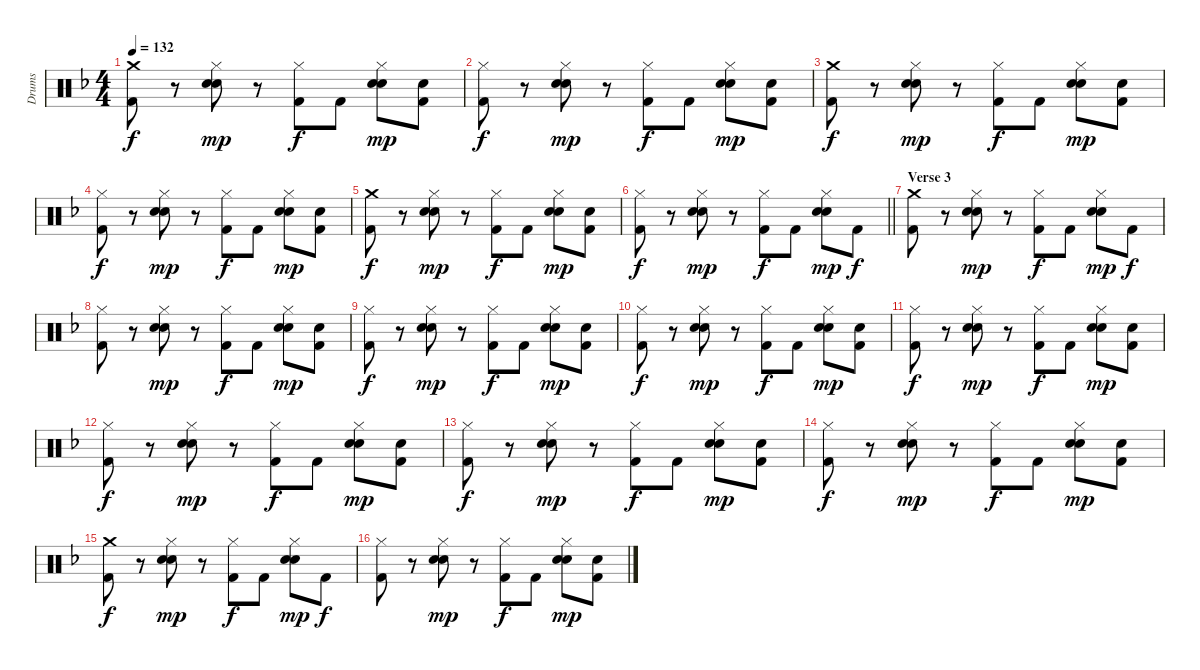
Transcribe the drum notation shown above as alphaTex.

\track ("Drums" "Drums") {instrument percussion}
\staff {score}
\articulation defaults
\ts (4 4)
\tempo 132
\clef neutral
\ks f
("Crash medium (hit)" "Kick (hit) 2").8{dy f} r.8 ("Hi-Hat (closed)" "Hand Clap (hit)" "Snare (hit) 2").8{dy mp} r.8 ("Hi-Hat (closed)" "Kick (hit) 2").8{dy f} "Kick (hit) 2".8 ("Hi-Hat (closed)" "Hand Clap (hit)" "Snare (hit) 2").8{dy mp} ("Hand Clap (hit)" "Kick (hit) 2").8 |
("Hi-Hat (closed)" "Kick (hit) 2").8{dy f} r.8 ("Hi-Hat (closed)" "Hand Clap (hit)" "Snare (hit) 2").8{dy mp} r.8 ("Hi-Hat (closed)" "Kick (hit) 2").8{dy f} "Kick (hit) 2".8 ("Hi-Hat (closed)" "Hand Clap (hit)" "Snare (hit) 2").8{dy mp} ("Hand Clap (hit)" "Kick (hit) 2").8 |
("Crash medium (hit)" "Kick (hit) 2").8{dy f} r.8 ("Hi-Hat (closed)" "Hand Clap (hit)" "Snare (hit) 2").8{dy mp} r.8 ("Hi-Hat (closed)" "Kick (hit) 2").8{dy f} "Kick (hit) 2".8 ("Hi-Hat (closed)" "Hand Clap (hit)" "Snare (hit) 2").8{dy mp} ("Hand Clap (hit)" "Kick (hit) 2").8 |
("Hi-Hat (closed)" "Kick (hit) 2").8{dy f} r.8 ("Hi-Hat (closed)" "Hand Clap (hit)" "Snare (hit) 2").8{dy mp} r.8 ("Hi-Hat (closed)" "Kick (hit) 2").8{dy f} "Kick (hit) 2".8 ("Hi-Hat (closed)" "Hand Clap (hit)" "Snare (hit) 2").8{dy mp} ("Hand Clap (hit)" "Kick (hit) 2").8 |
("Crash medium (hit)" "Kick (hit) 2").8{dy f} r.8 ("Hi-Hat (closed)" "Hand Clap (hit)" "Snare (hit) 2").8{dy mp} r.8 ("Hi-Hat (closed)" "Kick (hit) 2").8{dy f} "Kick (hit) 2".8 ("Hi-Hat (closed)" "Hand Clap (hit)" "Snare (hit) 2").8{dy mp} ("Hand Clap (hit)" "Kick (hit) 2").8 |
\barLineRight lightlight
("Hi-Hat (closed)" "Kick (hit) 2").8{dy f} r.8 ("Hi-Hat (closed)" "Hand Clap (hit)" "Snare (hit) 2").8{dy mp} r.8 ("Hi-Hat (closed)" "Kick (hit) 2").8{dy f} "Kick (hit) 2".8 ("Hi-Hat (closed)" "Hand Clap (hit)" "Snare (hit) 2").8{dy mp} "Kick (hit) 2".8{dy f} |
\section ("" "Verse 3")
("Crash medium (hit)" "Kick (hit) 2").8 r.8 ("Hi-Hat (closed)" "Hand Clap (hit)" "Snare (hit) 2").8{dy mp} r.8 ("Hi-Hat (closed)" "Kick (hit) 2").8{dy f} "Kick (hit) 2".8 ("Hi-Hat (closed)" "Hand Clap (hit)" "Snare (hit) 2").8{dy mp} "Kick (hit) 2".8{dy f} |
("Hi-Hat (closed)" "Kick (hit) 2").8 r.8 ("Hi-Hat (closed)" "Hand Clap (hit)" "Snare (hit) 2").8{dy mp} r.8 ("Hi-Hat (closed)" "Kick (hit) 2").8{dy f} "Kick (hit) 2".8 ("Hi-Hat (closed)" "Hand Clap (hit)" "Snare (hit) 2").8{dy mp} ("Hand Clap (hit)" "Kick (hit) 2").8 |
("Hi-Hat (closed)" "Kick (hit) 2").8{dy f} r.8 ("Hi-Hat (closed)" "Hand Clap (hit)" "Snare (hit) 2").8{dy mp} r.8 ("Hi-Hat (closed)" "Kick (hit) 2").8{dy f} "Kick (hit) 2".8 ("Hi-Hat (closed)" "Hand Clap (hit)" "Snare (hit) 2").8{dy mp} ("Hand Clap (hit)" "Kick (hit) 2").8 |
("Hi-Hat (closed)" "Kick (hit) 2").8{dy f} r.8 ("Hi-Hat (closed)" "Hand Clap (hit)" "Snare (hit) 2").8{dy mp} r.8 ("Hi-Hat (closed)" "Kick (hit) 2").8{dy f} "Kick (hit) 2".8 ("Hi-Hat (closed)" "Hand Clap (hit)" "Snare (hit) 2").8{dy mp} ("Hand Clap (hit)" "Kick (hit) 2").8 |
("Hi-Hat (closed)" "Kick (hit) 2").8{dy f} r.8 ("Hi-Hat (closed)" "Hand Clap (hit)" "Snare (hit) 2").8{dy mp} r.8 ("Hi-Hat (closed)" "Kick (hit) 2").8{dy f} "Kick (hit) 2".8 ("Hi-Hat (closed)" "Hand Clap (hit)" "Snare (hit) 2").8{dy mp} ("Hand Clap (hit)" "Kick (hit) 2").8 |
("Hi-Hat (closed)" "Kick (hit) 2").8{dy f} r.8 ("Hi-Hat (closed)" "Hand Clap (hit)" "Snare (hit) 2").8{dy mp} r.8 ("Hi-Hat (closed)" "Kick (hit) 2").8{dy f} "Kick (hit) 2".8 ("Hi-Hat (closed)" "Hand Clap (hit)" "Snare (hit) 2").8{dy mp} ("Hand Clap (hit)" "Kick (hit) 2").8 |
("Hi-Hat (closed)" "Kick (hit) 2").8{dy f} r.8 ("Hi-Hat (closed)" "Hand Clap (hit)" "Snare (hit) 2").8{dy mp} r.8 ("Hi-Hat (closed)" "Kick (hit) 2").8{dy f} "Kick (hit) 2".8 ("Hi-Hat (closed)" "Hand Clap (hit)" "Snare (hit) 2").8{dy mp} ("Hand Clap (hit)" "Kick (hit) 2").8 |
("Hi-Hat (closed)" "Kick (hit) 2").8{dy f} r.8 ("Hi-Hat (closed)" "Hand Clap (hit)" "Snare (hit) 2").8{dy mp} r.8 ("Hi-Hat (closed)" "Kick (hit) 2").8{dy f} "Kick (hit) 2".8 ("Hi-Hat (closed)" "Hand Clap (hit)" "Snare (hit) 2").8{dy mp} ("Hand Clap (hit)" "Kick (hit) 2").8 |
("Crash medium (hit)" "Kick (hit) 2").8{dy f} r.8 ("Hi-Hat (closed)" "Hand Clap (hit)" "Snare (hit) 2").8{dy mp} r.8 ("Hi-Hat (closed)" "Kick (hit) 2").8{dy f} "Kick (hit) 2".8 ("Hi-Hat (closed)" "Hand Clap (hit)" "Snare (hit) 2").8{dy mp} "Kick (hit) 2".8{dy f} |
("Hi-Hat (closed)" "Kick (hit) 2").8 r.8 ("Hi-Hat (closed)" "Hand Clap (hit)" "Snare (hit) 2").8{dy mp} r.8 ("Hi-Hat (closed)" "Kick (hit) 2").8{dy f} "Kick (hit) 2".8 ("Hi-Hat (closed)" "Hand Clap (hit)" "Snare (hit) 2").8{dy mp} ("Hand Clap (hit)" "Kick (hit) 2").8
